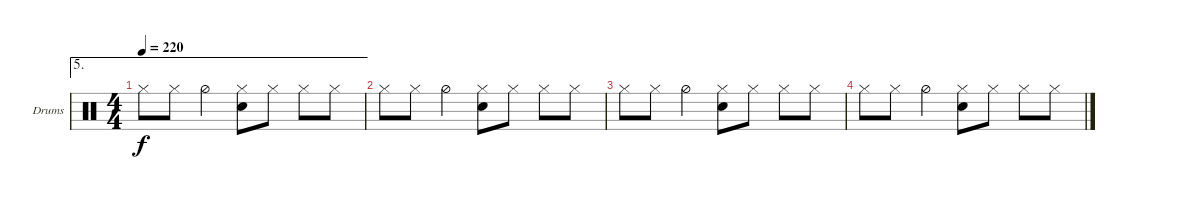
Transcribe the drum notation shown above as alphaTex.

\bracketExtendMode groupsimilarinstruments
\firstSystemTrackNameOrientation horizontal
\otherSystemsTrackNameOrientation horizontal
\track ("Drums" "Drums") {instrument percussion}
\staff {score}
\articulation defaults
\ae 5
\ts (4 4)
\tempo 220
\clef neutral
\scale
0.322034
\ks c "Hi-Hat (closed)".8{dy f} "Hi-Hat (closed)".8 "Hi-Hat (half)".4
("Hi-Hat (closed)" "Snare (hit) 2").8 "Hi-Hat (closed)".8 "Hi-Hat (closed)".8 "Hi-Hat (closed)".8 |
"Hi-Hat (closed)".8 "Hi-Hat (closed)".8 "Hi-Hat (half)".4 ("Hi-Hat (closed)" "Snare (hit) 2").8 "Hi-Hat (closed)".8 "Hi-Hat (closed)".8 "Hi-Hat (closed)".8 |
"Hi-Hat (closed)".8 "Hi-Hat (closed)".8 "Hi-Hat (half)".4 ("Hi-Hat (closed)" "Snare (hit) 2").8 "Hi-Hat (closed)".8 "Hi-Hat (closed)".8 "Hi-Hat (closed)".8 |
"Hi-Hat (closed)".8 "Hi-Hat (closed)".8 "Hi-Hat (half)".4 ("Hi-Hat (closed)" "Snare (hit) 2").8 "Hi-Hat (closed)".8 "Hi-Hat (closed)".8 "Hi-Hat (closed)".8
